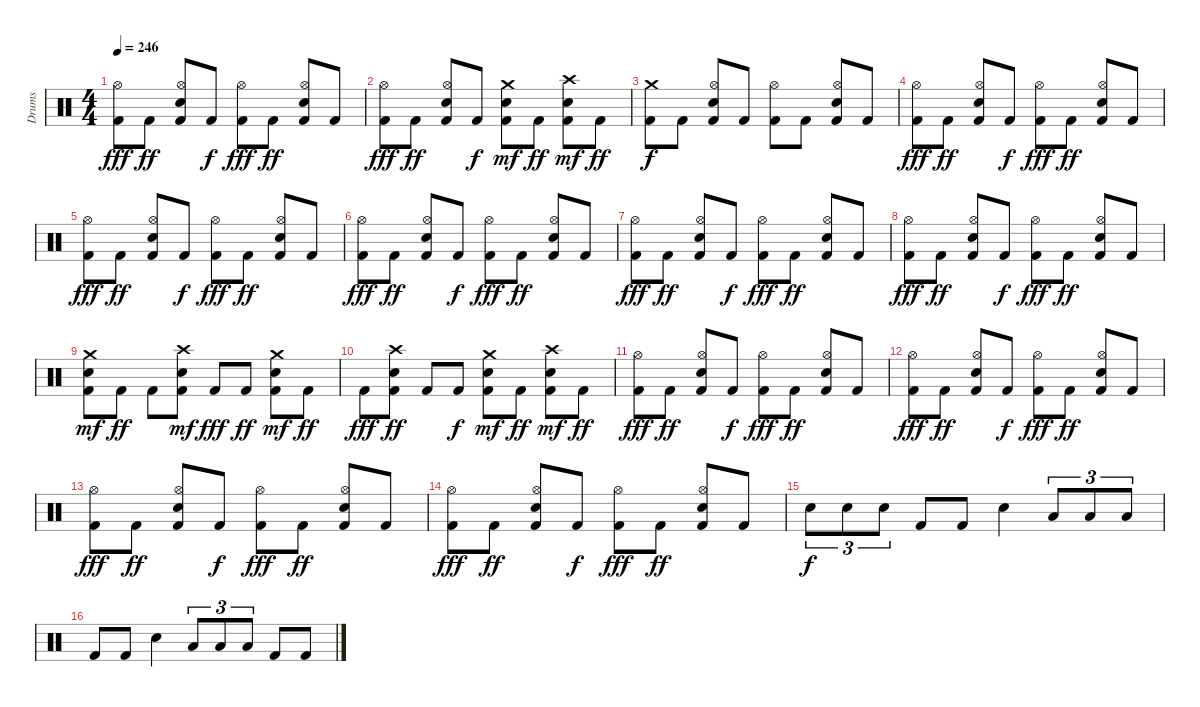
\track ("Drums" "Drums") {instrument percussion}
\staff {score}
\articulation defaults
\ts (4 4)
\tempo 246
\clef neutral
\ks c
("Kick (hit) 2" "Hi-Hat (open)").8{dy fff volume 12} "Kick (hit) 2".8{dy ff} ("Kick (hit) 2" "Snare (hit) 2" "Hi-Hat (open)").8 "Kick (hit) 2".8{dy f} ("Kick (hit) 2" "Hi-Hat (open)").8{dy fff} "Kick (hit) 2".8{dy ff} ("Kick (hit) 2" "Snare (hit) 2" "Hi-Hat (open)").8 "Kick (hit) 2".8 |
("Kick (hit) 2" "Hi-Hat (open)").8{dy fff volume 12} "Kick (hit) 2".8{dy ff} ("Kick (hit) 2" "Snare (hit) 2" "Hi-Hat (open)").8 "Kick (hit) 2".8{dy f} ("Kick (hit) 2" "Snare (hit) 2" "Crash medium (hit)").8{dy mf} "Kick (hit) 2".8{dy ff} ("Kick (hit) 2" "Snare (hit) 2" "Crash high (hit)").8{dy mf} "Kick (hit) 2".8{dy ff} |
("Kick (hit) 2" "Crash medium (hit)").8{dy f volume 12} "Kick (hit) 2".8 ("Kick (hit) 2" "Snare (hit) 2" "Hi-Hat (open)").8 "Kick (hit) 2".8 ("Kick (hit) 2" "Hi-Hat (open)").8 "Kick (hit) 2".8 ("Kick (hit) 2" "Snare (hit) 2" "Hi-Hat (open)").8 "Kick (hit) 2".8 |
("Kick (hit) 2" "Hi-Hat (open)").8{dy fff volume 12} "Kick (hit) 2".8{dy ff} ("Kick (hit) 2" "Snare (hit) 2" "Hi-Hat (open)").8 "Kick (hit) 2".8{dy f} ("Kick (hit) 2" "Hi-Hat (open)").8{dy fff} "Kick (hit) 2".8{dy ff} ("Kick (hit) 2" "Snare (hit) 2" "Hi-Hat (open)").8 "Kick (hit) 2".8 |
("Kick (hit) 2" "Hi-Hat (open)").8{dy fff volume 12} "Kick (hit) 2".8{dy ff} ("Kick (hit) 2" "Snare (hit) 2" "Hi-Hat (open)").8 "Kick (hit) 2".8{dy f} ("Kick (hit) 2" "Hi-Hat (open)").8{dy fff} "Kick (hit) 2".8{dy ff} ("Kick (hit) 2" "Snare (hit) 2" "Hi-Hat (open)").8 "Kick (hit) 2".8 |
("Kick (hit) 2" "Hi-Hat (open)").8{dy fff volume 12} "Kick (hit) 2".8{dy ff} ("Kick (hit) 2" "Snare (hit) 2" "Hi-Hat (open)").8 "Kick (hit) 2".8{dy f} ("Kick (hit) 2" "Hi-Hat (open)").8{dy fff} "Kick (hit) 2".8{dy ff} ("Kick (hit) 2" "Snare (hit) 2" "Hi-Hat (open)").8 "Kick (hit) 2".8 |
("Kick (hit) 2" "Hi-Hat (open)").8{dy fff volume 12} "Kick (hit) 2".8{dy ff} ("Kick (hit) 2" "Snare (hit) 2" "Hi-Hat (open)").8 "Kick (hit) 2".8{dy f} ("Kick (hit) 2" "Hi-Hat (open)").8{dy fff} "Kick (hit) 2".8{dy ff} ("Kick (hit) 2" "Snare (hit) 2" "Hi-Hat (open)").8 "Kick (hit) 2".8 |
("Kick (hit) 2" "Hi-Hat (open)").8{dy fff volume 12} "Kick (hit) 2".8{dy ff} ("Kick (hit) 2" "Snare (hit) 2" "Hi-Hat (open)").8 "Kick (hit) 2".8{dy f} ("Kick (hit) 2" "Hi-Hat (open)").8{dy fff} "Kick (hit) 2".8{dy ff} ("Kick (hit) 2" "Snare (hit) 2" "Hi-Hat (open)").8 "Kick (hit) 2".8 |
("Kick (hit) 2" "Snare (hit) 2" "Crash medium (hit)").8{dy mf volume 12} "Kick (hit) 2".8{dy ff} "Kick (hit) 2".8 ("Kick (hit) 2" "Snare (hit) 2" "Crash high (hit)").8{dy mf} "Kick (hit) 2".8{dy fff} "Kick (hit) 2".8{dy ff} ("Kick (hit) 2" "Snare (hit) 2" "Crash medium (hit)").8{dy mf} "Kick (hit) 2".8{dy ff} |
"Kick (hit) 2".8{dy fff volume 12} ("Kick (hit) 2" "Snare (hit) 2" "Crash high (hit)").8{dy ff} "Kick (hit) 2".8 "Kick (hit) 2".8{dy f} ("Kick (hit) 2" "Snare (hit) 2" "Crash medium (hit)").8{dy mf} "Kick (hit) 2".8{dy ff} ("Kick (hit) 2" "Snare (hit) 2" "Crash high (hit)").8{dy mf} "Kick (hit) 2".8{dy ff} |
("Kick (hit) 2" "Hi-Hat (open)").8{dy fff volume 12} "Kick (hit) 2".8{dy ff} ("Kick (hit) 2" "Snare (hit) 2" "Hi-Hat (open)").8 "Kick (hit) 2".8{dy f} ("Kick (hit) 2" "Hi-Hat (open)").8{dy fff} "Kick (hit) 2".8{dy ff} ("Kick (hit) 2" "Snare (hit) 2" "Hi-Hat (open)").8 "Kick (hit) 2".8 |
("Kick (hit) 2" "Hi-Hat (open)").8{dy fff volume 12} "Kick (hit) 2".8{dy ff} ("Kick (hit) 2" "Snare (hit) 2" "Hi-Hat (open)").8 "Kick (hit) 2".8{dy f} ("Kick (hit) 2" "Hi-Hat (open)").8{dy fff} "Kick (hit) 2".8{dy ff} ("Kick (hit) 2" "Snare (hit) 2" "Hi-Hat (open)").8 "Kick (hit) 2".8 |
("Kick (hit) 2" "Hi-Hat (open)").8{dy fff volume 12} "Kick (hit) 2".8{dy ff} ("Kick (hit) 2" "Snare (hit) 2" "Hi-Hat (open)").8 "Kick (hit) 2".8{dy f} ("Kick (hit) 2" "Hi-Hat (open)").8{dy fff} "Kick (hit) 2".8{dy ff} ("Kick (hit) 2" "Snare (hit) 2" "Hi-Hat (open)").8 "Kick (hit) 2".8 |
("Kick (hit) 2" "Hi-Hat (open)").8{dy fff volume 12} "Kick (hit) 2".8{dy ff} ("Kick (hit) 2" "Snare (hit) 2" "Hi-Hat (open)").8 "Kick (hit) 2".8{dy f} ("Kick (hit) 2" "Hi-Hat (open)").8{dy fff} "Kick (hit) 2".8{dy ff} ("Kick (hit) 2" "Snare (hit) 2" "Hi-Hat (open)").8 "Kick (hit) 2".8 |
"Snare (hit) 2".8{tu (3 2) dy f volume 12} "Snare (hit) 2".8{tu (3 2)} "Snare (hit) 2".8{tu (3 2)} "Kick (hit) 2".8 "Kick (hit) 2".8 "Snare (hit) 2".4 "Low Floor Tom (hit)".8{tu (3 2)} "Low Floor Tom (hit)".8{tu (3 2)} "Low Floor Tom (hit)".8{tu (3 2)} |
"Kick (hit) 2".8{volume 12} "Kick (hit) 2".8 "Snare (hit) 2".4 "Low Floor Tom (hit)".8{tu (3 2)} "Low Floor Tom (hit)".8{tu (3 2)} "Low Floor Tom (hit)".8{tu (3 2)} "Kick (hit) 2".8 "Kick (hit) 2".8
